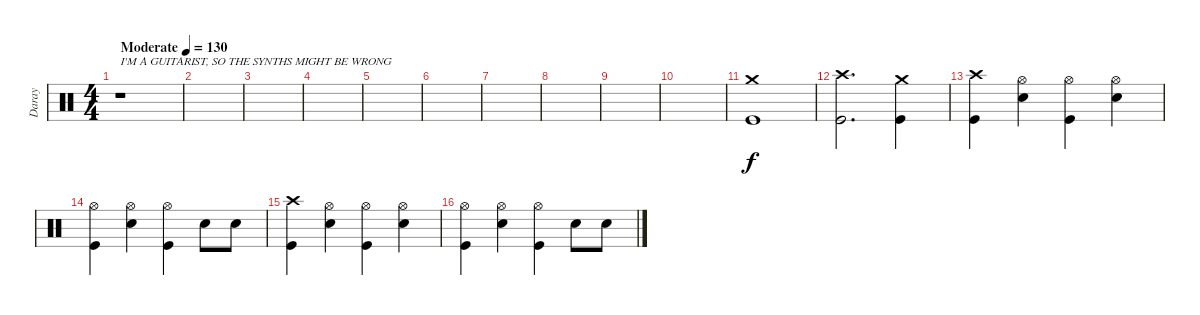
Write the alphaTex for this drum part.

\track ("Daray" "Daray") {instrument percussion}
\staff {score}
\articulation defaults
\ts (4 4)
\tempo (130 "Moderate")
\clef neutral
\ks c
r.1{txt "I'M A GUITARIST, SO THE SYNTHS MIGHT BE WRONG" dy f} |
|
|
|
|
|
|
|
|
|
("Crash medium (hit)" "Kick (hit)").1 |
("Crash high (hit)" "Kick (hit)").2{d} ("Crash medium (hit)" "Kick (hit)").4 |
("Crash high (hit)" "Kick (hit)").4 ("Hi-Hat (open)" "Electric Snare (hit)").4 ("Hi-Hat (open)" "Kick (hit)").4 ("Hi-Hat (open)" "Electric Snare (hit)").4 |
("Hi-Hat (open)" "Kick (hit)").4 ("Hi-Hat (open)" "Electric Snare (hit)").4 ("Hi-Hat (open)" "Kick (hit)").4 "Electric Snare (hit)".8 "Electric Snare (hit)".8 |
("Crash high (hit)" "Kick (hit)").4 ("Hi-Hat (open)" "Electric Snare (hit)").4 ("Hi-Hat (open)" "Kick (hit)").4 ("Hi-Hat (open)" "Electric Snare (hit)").4 |
("Hi-Hat (open)" "Kick (hit)").4 ("Hi-Hat (open)" "Electric Snare (hit)").4 ("Hi-Hat (open)" "Kick (hit)").4 "Electric Snare (hit)".8 "Electric Snare (hit)".8
